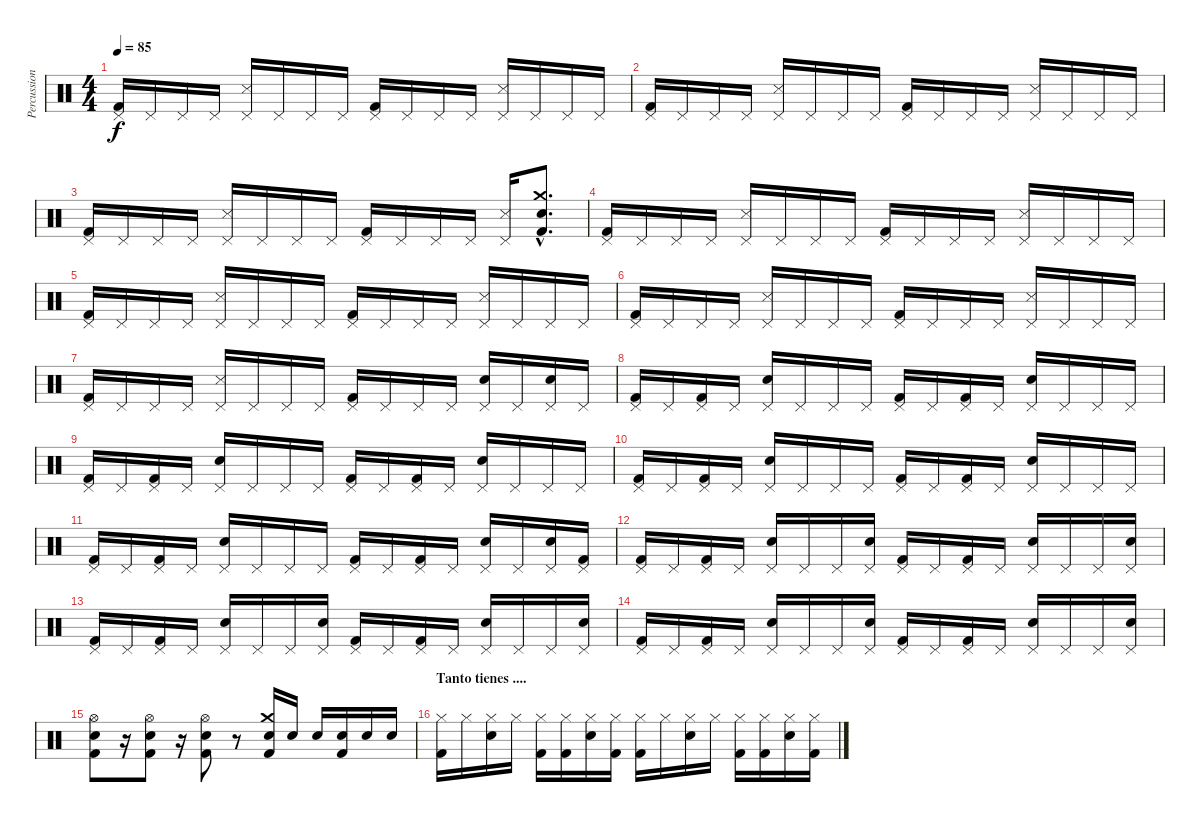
\track ("Percussions" "Percussion") {instrument percussion}
\staff {score}
\articulation defaults
\ts (4 4)
\tempo 85
\clef neutral
\ks c
("Pedal Hi-Hat (hit)" "Kick (hit) 2").16{dy f} "Pedal Hi-Hat (hit)".16 "Pedal Hi-Hat (hit)".16 "Pedal Hi-Hat (hit)".16 ("Pedal Hi-Hat (hit)" "Snare (side stick) 3").16 "Pedal Hi-Hat (hit)".16 "Pedal Hi-Hat (hit)".16 "Pedal Hi-Hat (hit)".16 ("Pedal Hi-Hat (hit)" "Kick (hit) 2").16 "Pedal Hi-Hat (hit)".16 "Pedal Hi-Hat (hit)".16 "Pedal Hi-Hat (hit)".16 ("Pedal Hi-Hat (hit)" "Snare (side stick) 3").16 "Pedal Hi-Hat (hit)".16 "Pedal Hi-Hat (hit)".16 "Pedal Hi-Hat (hit)".16 |
("Pedal Hi-Hat (hit)" "Kick (hit) 2").16 "Pedal Hi-Hat (hit)".16 "Pedal Hi-Hat (hit)".16 "Pedal Hi-Hat (hit)".16 ("Pedal Hi-Hat (hit)" "Snare (side stick) 3").16 "Pedal Hi-Hat (hit)".16 "Pedal Hi-Hat (hit)".16 "Pedal Hi-Hat (hit)".16 ("Pedal Hi-Hat (hit)" "Kick (hit) 2").16 "Pedal Hi-Hat (hit)".16 "Pedal Hi-Hat (hit)".16 "Pedal Hi-Hat (hit)".16 ("Pedal Hi-Hat (hit)" "Snare (side stick) 3").16 "Pedal Hi-Hat (hit)".16 "Pedal Hi-Hat (hit)".16 "Pedal Hi-Hat (hit)".16 |
("Pedal Hi-Hat (hit)" "Kick (hit) 2").16 "Pedal Hi-Hat (hit)".16 "Pedal Hi-Hat (hit)".16 "Pedal Hi-Hat (hit)".16 ("Pedal Hi-Hat (hit)" "Snare (side stick) 3").16 "Pedal Hi-Hat (hit)".16 "Pedal Hi-Hat (hit)".16 "Pedal Hi-Hat (hit)".16 ("Pedal Hi-Hat (hit)" "Kick (hit) 2").16 "Pedal Hi-Hat (hit)".16 "Pedal Hi-Hat (hit)".16 "Pedal Hi-Hat (hit)".16 ("Pedal Hi-Hat (hit)" "Snare (side stick) 3").16 ("Crash medium (hit)"{hac} "Snare (hit) 2"{hac} "Kick (hit) 2"{hac}).8{d} |
("Pedal Hi-Hat (hit)" "Kick (hit) 2").16 "Pedal Hi-Hat (hit)".16 "Pedal Hi-Hat (hit)".16 "Pedal Hi-Hat (hit)".16 ("Pedal Hi-Hat (hit)" "Snare (side stick) 3").16 "Pedal Hi-Hat (hit)".16 "Pedal Hi-Hat (hit)".16 "Pedal Hi-Hat (hit)".16 ("Pedal Hi-Hat (hit)" "Kick (hit) 2").16 "Pedal Hi-Hat (hit)".16 "Pedal Hi-Hat (hit)".16 "Pedal Hi-Hat (hit)".16 ("Pedal Hi-Hat (hit)" "Snare (side stick) 3").16 "Pedal Hi-Hat (hit)".16 "Pedal Hi-Hat (hit)".16 "Pedal Hi-Hat (hit)".16 |
("Pedal Hi-Hat (hit)" "Kick (hit) 2").16 "Pedal Hi-Hat (hit)".16 "Pedal Hi-Hat (hit)".16 "Pedal Hi-Hat (hit)".16 ("Pedal Hi-Hat (hit)" "Snare (side stick) 3").16 "Pedal Hi-Hat (hit)".16 "Pedal Hi-Hat (hit)".16 "Pedal Hi-Hat (hit)".16 ("Pedal Hi-Hat (hit)" "Kick (hit) 2").16 "Pedal Hi-Hat (hit)".16 "Pedal Hi-Hat (hit)".16 "Pedal Hi-Hat (hit)".16 ("Pedal Hi-Hat (hit)" "Snare (side stick) 3").16 "Pedal Hi-Hat (hit)".16 "Pedal Hi-Hat (hit)".16 "Pedal Hi-Hat (hit)".16 |
("Pedal Hi-Hat (hit)" "Kick (hit) 2").16 "Pedal Hi-Hat (hit)".16 "Pedal Hi-Hat (hit)".16 "Pedal Hi-Hat (hit)".16 ("Pedal Hi-Hat (hit)" "Snare (side stick) 3").16 "Pedal Hi-Hat (hit)".16 "Pedal Hi-Hat (hit)".16 "Pedal Hi-Hat (hit)".16 ("Pedal Hi-Hat (hit)" "Kick (hit) 2").16 "Pedal Hi-Hat (hit)".16 "Pedal Hi-Hat (hit)".16 "Pedal Hi-Hat (hit)".16 ("Pedal Hi-Hat (hit)" "Snare (side stick) 3").16 "Pedal Hi-Hat (hit)".16 "Pedal Hi-Hat (hit)".16 "Pedal Hi-Hat (hit)".16 |
("Pedal Hi-Hat (hit)" "Kick (hit) 2").16 "Pedal Hi-Hat (hit)".16 "Pedal Hi-Hat (hit)".16 "Pedal Hi-Hat (hit)".16 ("Pedal Hi-Hat (hit)" "Snare (side stick) 3").16 "Pedal Hi-Hat (hit)".16 "Pedal Hi-Hat (hit)".16 "Pedal Hi-Hat (hit)".16 ("Pedal Hi-Hat (hit)" "Kick (hit) 2").16 "Pedal Hi-Hat (hit)".16 "Pedal Hi-Hat (hit)".16 "Pedal Hi-Hat (hit)".16 ("Pedal Hi-Hat (hit)" "Snare (hit) 2").16 "Pedal Hi-Hat (hit)".16 ("Pedal Hi-Hat (hit)" "Snare (hit) 2").16 "Pedal Hi-Hat (hit)".16 |
("Pedal Hi-Hat (hit)" "Kick (hit) 2").16 "Pedal Hi-Hat (hit)".16 ("Pedal Hi-Hat (hit)" "Kick (hit) 2").16 "Pedal Hi-Hat (hit)".16 ("Pedal Hi-Hat (hit)" "Snare (hit) 2").16 "Pedal Hi-Hat (hit)".16 "Pedal Hi-Hat (hit)".16 "Pedal Hi-Hat (hit)".16 ("Pedal Hi-Hat (hit)" "Kick (hit) 2").16 "Pedal Hi-Hat (hit)".16 ("Pedal Hi-Hat (hit)" "Kick (hit) 2").16 "Pedal Hi-Hat (hit)".16 ("Pedal Hi-Hat (hit)" "Snare (hit) 2").16 "Pedal Hi-Hat (hit)".16 "Pedal Hi-Hat (hit)".16 "Pedal Hi-Hat (hit)".16 |
("Pedal Hi-Hat (hit)" "Kick (hit) 2").16 "Pedal Hi-Hat (hit)".16 ("Pedal Hi-Hat (hit)" "Kick (hit) 2").16 "Pedal Hi-Hat (hit)".16 ("Pedal Hi-Hat (hit)" "Snare (hit) 2").16 "Pedal Hi-Hat (hit)".16 "Pedal Hi-Hat (hit)".16 "Pedal Hi-Hat (hit)".16 ("Pedal Hi-Hat (hit)" "Kick (hit) 2").16 "Pedal Hi-Hat (hit)".16 ("Pedal Hi-Hat (hit)" "Kick (hit) 2").16 "Pedal Hi-Hat (hit)".16 ("Pedal Hi-Hat (hit)" "Snare (hit) 2").16 "Pedal Hi-Hat (hit)".16 "Pedal Hi-Hat (hit)".16 "Pedal Hi-Hat (hit)".16 |
("Pedal Hi-Hat (hit)" "Kick (hit) 2").16 "Pedal Hi-Hat (hit)".16 ("Pedal Hi-Hat (hit)" "Kick (hit) 2").16 "Pedal Hi-Hat (hit)".16 ("Pedal Hi-Hat (hit)" "Snare (hit) 2").16 "Pedal Hi-Hat (hit)".16 "Pedal Hi-Hat (hit)".16 "Pedal Hi-Hat (hit)".16 ("Pedal Hi-Hat (hit)" "Kick (hit) 2").16 "Pedal Hi-Hat (hit)".16 ("Pedal Hi-Hat (hit)" "Kick (hit) 2").16 "Pedal Hi-Hat (hit)".16 ("Pedal Hi-Hat (hit)" "Snare (hit) 2").16 "Pedal Hi-Hat (hit)".16 "Pedal Hi-Hat (hit)".16 "Pedal Hi-Hat (hit)".16 |
("Pedal Hi-Hat (hit)" "Kick (hit) 2").16 "Pedal Hi-Hat (hit)".16 ("Pedal Hi-Hat (hit)" "Kick (hit) 2").16 "Pedal Hi-Hat (hit)".16 ("Pedal Hi-Hat (hit)" "Snare (hit) 2").16 "Pedal Hi-Hat (hit)".16 "Pedal Hi-Hat (hit)".16 "Pedal Hi-Hat (hit)".16 ("Pedal Hi-Hat (hit)" "Kick (hit) 2").16 "Pedal Hi-Hat (hit)".16 ("Pedal Hi-Hat (hit)" "Kick (hit) 2").16 "Pedal Hi-Hat (hit)".16 ("Pedal Hi-Hat (hit)" "Snare (hit) 2").16 "Pedal Hi-Hat (hit)".16 ("Pedal Hi-Hat (hit)" "Snare (hit) 2").16 ("Pedal Hi-Hat (hit)" "Kick (hit) 2").16 |
("Pedal Hi-Hat (hit)" "Kick (hit) 2").16 "Pedal Hi-Hat (hit)".16 ("Pedal Hi-Hat (hit)" "Kick (hit) 2").16 "Pedal Hi-Hat (hit)".16 ("Pedal Hi-Hat (hit)" "Snare (hit) 2").16 "Pedal Hi-Hat (hit)".16 "Pedal Hi-Hat (hit)".16 ("Pedal Hi-Hat (hit)" "Snare (hit) 2").16 ("Pedal Hi-Hat (hit)" "Kick (hit) 2").16 "Pedal Hi-Hat (hit)".16 ("Pedal Hi-Hat (hit)" "Kick (hit) 2").16 "Pedal Hi-Hat (hit)".16 ("Pedal Hi-Hat (hit)" "Snare (hit) 2").16 "Pedal Hi-Hat (hit)".16 "Pedal Hi-Hat (hit)".16 ("Pedal Hi-Hat (hit)" "Snare (hit) 2").16 |
("Pedal Hi-Hat (hit)" "Kick (hit) 2").16 "Pedal Hi-Hat (hit)".16 ("Pedal Hi-Hat (hit)" "Kick (hit) 2").16 "Pedal Hi-Hat (hit)".16 ("Pedal Hi-Hat (hit)" "Snare (hit) 2").16 "Pedal Hi-Hat (hit)".16 "Pedal Hi-Hat (hit)".16 ("Pedal Hi-Hat (hit)" "Snare (hit) 2").16 ("Pedal Hi-Hat (hit)" "Kick (hit) 2").16 "Pedal Hi-Hat (hit)".16 ("Pedal Hi-Hat (hit)" "Kick (hit) 2").16 "Pedal Hi-Hat (hit)".16 ("Pedal Hi-Hat (hit)" "Snare (hit) 2").16 "Pedal Hi-Hat (hit)".16 "Pedal Hi-Hat (hit)".16 ("Pedal Hi-Hat (hit)" "Snare (hit) 2").16 |
("Pedal Hi-Hat (hit)" "Kick (hit) 2").16 "Pedal Hi-Hat (hit)".16 ("Pedal Hi-Hat (hit)" "Kick (hit) 2").16 "Pedal Hi-Hat (hit)".16 ("Pedal Hi-Hat (hit)" "Snare (hit) 2").16 "Pedal Hi-Hat (hit)".16 "Pedal Hi-Hat (hit)".16 ("Pedal Hi-Hat (hit)" "Snare (hit) 2").16 ("Pedal Hi-Hat (hit)" "Kick (hit) 2").16 "Pedal Hi-Hat (hit)".16 ("Pedal Hi-Hat (hit)" "Kick (hit) 2").16 "Pedal Hi-Hat (hit)".16 ("Pedal Hi-Hat (hit)" "Snare (hit) 2").16 "Pedal Hi-Hat (hit)".16 "Pedal Hi-Hat (hit)".16 ("Pedal Hi-Hat (hit)" "Snare (hit) 2").16 |
("Hi-Hat (open)" "Snare (hit) 2" "Kick (hit) 2").8 r.16 ("Hi-Hat (open)" "Snare (hit) 2" "Kick (hit) 2").8 r.16 ("Hi-Hat (open)" "Snare (hit) 2" "Kick (hit) 2").8 r.8 ("Crash medium (hit)" "Snare (hit) 2" "Kick (hit) 2").16 "Snare (hit) 2".16 "Snare (hit) 2".16 ("Snare (hit) 2" "Kick (hit) 2").16 "Snare (hit) 2".16 "Snare (hit) 2".16 |
\section ("" "Tanto tienes ....")
("Hi-Hat (closed)" "Kick (hit) 2").16 "Hi-Hat (closed)".16 ("Hi-Hat (closed)" "Snare (hit) 2").16 "Hi-Hat (closed)".16 ("Hi-Hat (closed)" "Kick (hit) 2").16 ("Hi-Hat (closed)" "Kick (hit) 2").16 ("Hi-Hat (closed)" "Snare (hit) 2").16 ("Hi-Hat (closed)" "Kick (hit) 2").16 ("Hi-Hat (closed)" "Kick (hit) 2").16 "Hi-Hat (closed)".16 ("Hi-Hat (closed)" "Snare (hit) 2").16 "Hi-Hat (closed)".16 ("Hi-Hat (closed)" "Kick (hit) 2").16 ("Hi-Hat (closed)" "Kick (hit) 2").16 ("Hi-Hat (closed)" "Snare (hit) 2").16 ("Hi-Hat (closed)" "Kick (hit) 2").16
